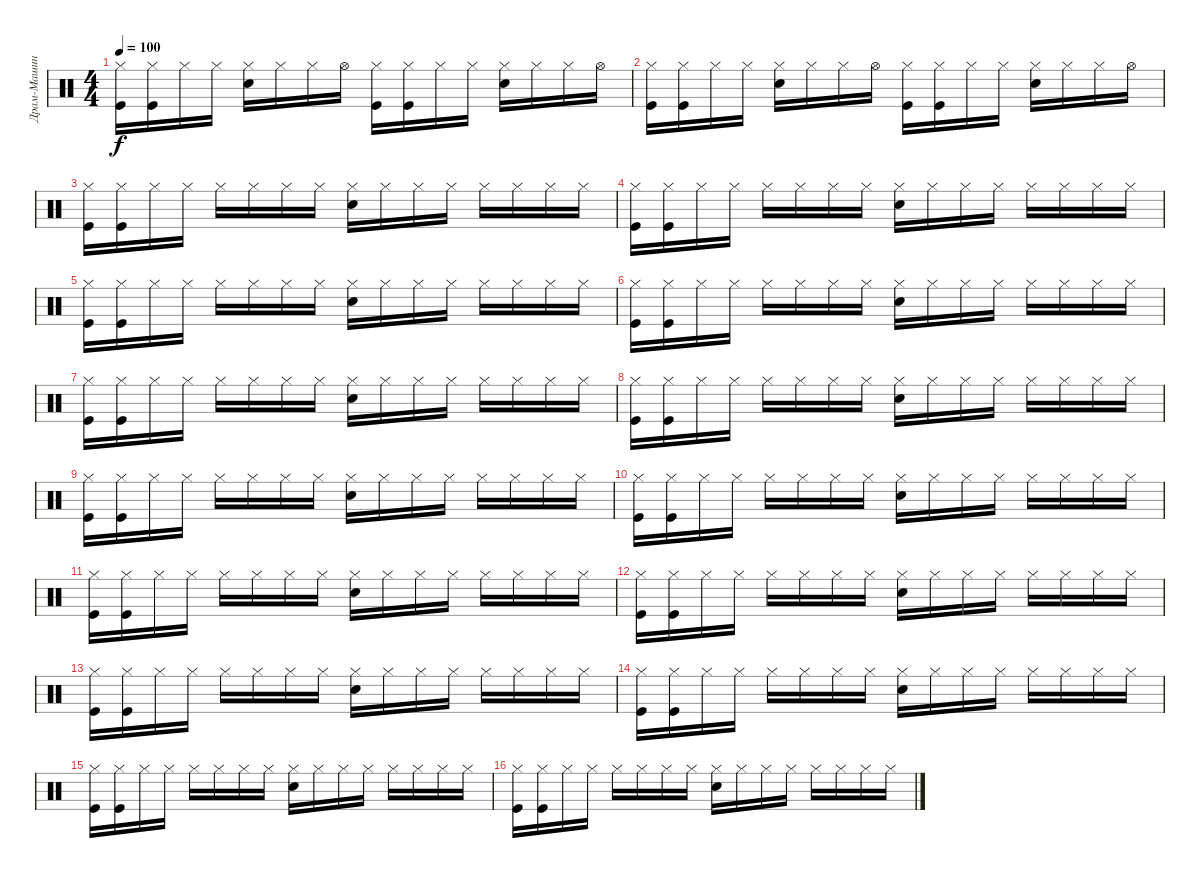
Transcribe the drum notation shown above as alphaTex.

\track ("Драм-Машина" "Драм-Машин") {instrument percussion}
\staff {score}
\articulation defaults
\ts (4 4)
\tempo 100
\clef neutral
\ks c
("Kick (hit)" "Hi-Hat (closed)").16{dy f} ("Kick (hit)" "Hi-Hat (closed)").16 "Hi-Hat (closed)".16 "Hi-Hat (closed)".16 ("Hi-Hat (closed)" "Electric Snare (hit)").16 "Hi-Hat (closed)".16 "Hi-Hat (closed)".16 "Hi-Hat (open)".16 ("Kick (hit)" "Hi-Hat (closed)").16 ("Kick (hit)" "Hi-Hat (closed)").16 "Hi-Hat (closed)".16 "Hi-Hat (closed)".16 ("Hi-Hat (closed)" "Electric Snare (hit)").16 "Hi-Hat (closed)".16 "Hi-Hat (closed)".16 "Hi-Hat (open)".16 |
("Kick (hit)" "Hi-Hat (closed)").16 ("Kick (hit)" "Hi-Hat (closed)").16 "Hi-Hat (closed)".16 "Hi-Hat (closed)".16 ("Hi-Hat (closed)" "Electric Snare (hit)").16 "Hi-Hat (closed)".16 "Hi-Hat (closed)".16 "Hi-Hat (open)".16 ("Kick (hit)" "Hi-Hat (closed)").16 ("Kick (hit)" "Hi-Hat (closed)").16 "Hi-Hat (closed)".16 "Hi-Hat (closed)".16 ("Hi-Hat (closed)" "Electric Snare (hit)").16 "Hi-Hat (closed)".16 "Hi-Hat (closed)".16 "Hi-Hat (open)".16 |
("Kick (hit)" "Hi-Hat (closed)").16 ("Kick (hit)" "Hi-Hat (closed)").16 "Hi-Hat (closed)".16 "Hi-Hat (closed)".16 "Hi-Hat (closed)".16 "Hi-Hat (closed)".16 "Hi-Hat (closed)".16 "Hi-Hat (closed)".16 ("Electric Snare (hit)" "Hi-Hat (closed)").16 "Hi-Hat (closed)".16 "Hi-Hat (closed)".16 "Hi-Hat (closed)".16 "Hi-Hat (closed)".16 "Hi-Hat (closed)".16 "Hi-Hat (closed)".16 "Hi-Hat (closed)".16 |
("Kick (hit)" "Hi-Hat (closed)").16 ("Kick (hit)" "Hi-Hat (closed)").16 "Hi-Hat (closed)".16 "Hi-Hat (closed)".16 "Hi-Hat (closed)".16 "Hi-Hat (closed)".16 "Hi-Hat (closed)".16 "Hi-Hat (closed)".16 ("Electric Snare (hit)" "Hi-Hat (closed)").16 "Hi-Hat (closed)".16 "Hi-Hat (closed)".16 "Hi-Hat (closed)".16 "Hi-Hat (closed)".16 "Hi-Hat (closed)".16 "Hi-Hat (closed)".16 "Hi-Hat (closed)".16 |
("Kick (hit)" "Hi-Hat (closed)").16 ("Kick (hit)" "Hi-Hat (closed)").16 "Hi-Hat (closed)".16 "Hi-Hat (closed)".16 "Hi-Hat (closed)".16 "Hi-Hat (closed)".16 "Hi-Hat (closed)".16 "Hi-Hat (closed)".16 ("Electric Snare (hit)" "Hi-Hat (closed)").16 "Hi-Hat (closed)".16 "Hi-Hat (closed)".16 "Hi-Hat (closed)".16 "Hi-Hat (closed)".16 "Hi-Hat (closed)".16 "Hi-Hat (closed)".16 "Hi-Hat (closed)".16 |
("Kick (hit)" "Hi-Hat (closed)").16 ("Kick (hit)" "Hi-Hat (closed)").16 "Hi-Hat (closed)".16 "Hi-Hat (closed)".16 "Hi-Hat (closed)".16 "Hi-Hat (closed)".16 "Hi-Hat (closed)".16 "Hi-Hat (closed)".16 ("Electric Snare (hit)" "Hi-Hat (closed)").16 "Hi-Hat (closed)".16 "Hi-Hat (closed)".16 "Hi-Hat (closed)".16 "Hi-Hat (closed)".16 "Hi-Hat (closed)".16 "Hi-Hat (closed)".16 "Hi-Hat (closed)".16 |
("Kick (hit)" "Hi-Hat (closed)").16 ("Kick (hit)" "Hi-Hat (closed)").16 "Hi-Hat (closed)".16 "Hi-Hat (closed)".16 "Hi-Hat (closed)".16 "Hi-Hat (closed)".16 "Hi-Hat (closed)".16 "Hi-Hat (closed)".16 ("Electric Snare (hit)" "Hi-Hat (closed)").16 "Hi-Hat (closed)".16 "Hi-Hat (closed)".16 "Hi-Hat (closed)".16 "Hi-Hat (closed)".16 "Hi-Hat (closed)".16 "Hi-Hat (closed)".16 "Hi-Hat (closed)".16 |
("Kick (hit)" "Hi-Hat (closed)").16 ("Kick (hit)" "Hi-Hat (closed)").16 "Hi-Hat (closed)".16 "Hi-Hat (closed)".16 "Hi-Hat (closed)".16 "Hi-Hat (closed)".16 "Hi-Hat (closed)".16 "Hi-Hat (closed)".16 ("Electric Snare (hit)" "Hi-Hat (closed)").16 "Hi-Hat (closed)".16 "Hi-Hat (closed)".16 "Hi-Hat (closed)".16 "Hi-Hat (closed)".16 "Hi-Hat (closed)".16 "Hi-Hat (closed)".16 "Hi-Hat (closed)".16 |
("Kick (hit)" "Hi-Hat (closed)").16 ("Kick (hit)" "Hi-Hat (closed)").16 "Hi-Hat (closed)".16 "Hi-Hat (closed)".16 "Hi-Hat (closed)".16 "Hi-Hat (closed)".16 "Hi-Hat (closed)".16 "Hi-Hat (closed)".16 ("Electric Snare (hit)" "Hi-Hat (closed)").16 "Hi-Hat (closed)".16 "Hi-Hat (closed)".16 "Hi-Hat (closed)".16 "Hi-Hat (closed)".16 "Hi-Hat (closed)".16 "Hi-Hat (closed)".16 "Hi-Hat (closed)".16 |
("Kick (hit)" "Hi-Hat (closed)").16 ("Kick (hit)" "Hi-Hat (closed)").16 "Hi-Hat (closed)".16 "Hi-Hat (closed)".16 "Hi-Hat (closed)".16 "Hi-Hat (closed)".16 "Hi-Hat (closed)".16 "Hi-Hat (closed)".16 ("Electric Snare (hit)" "Hi-Hat (closed)").16 "Hi-Hat (closed)".16 "Hi-Hat (closed)".16 "Hi-Hat (closed)".16 "Hi-Hat (closed)".16 "Hi-Hat (closed)".16 "Hi-Hat (closed)".16 "Hi-Hat (closed)".16 |
("Kick (hit)" "Hi-Hat (closed)").16 ("Kick (hit)" "Hi-Hat (closed)").16 "Hi-Hat (closed)".16 "Hi-Hat (closed)".16 "Hi-Hat (closed)".16 "Hi-Hat (closed)".16 "Hi-Hat (closed)".16 "Hi-Hat (closed)".16 ("Electric Snare (hit)" "Hi-Hat (closed)").16 "Hi-Hat (closed)".16 "Hi-Hat (closed)".16 "Hi-Hat (closed)".16 "Hi-Hat (closed)".16 "Hi-Hat (closed)".16 "Hi-Hat (closed)".16 "Hi-Hat (closed)".16 |
("Kick (hit)" "Hi-Hat (closed)").16 ("Kick (hit)" "Hi-Hat (closed)").16 "Hi-Hat (closed)".16 "Hi-Hat (closed)".16 "Hi-Hat (closed)".16 "Hi-Hat (closed)".16 "Hi-Hat (closed)".16 "Hi-Hat (closed)".16 ("Electric Snare (hit)" "Hi-Hat (closed)").16 "Hi-Hat (closed)".16 "Hi-Hat (closed)".16 "Hi-Hat (closed)".16 "Hi-Hat (closed)".16 "Hi-Hat (closed)".16 "Hi-Hat (closed)".16 "Hi-Hat (closed)".16 |
("Kick (hit)" "Hi-Hat (closed)").16 ("Kick (hit)" "Hi-Hat (closed)").16 "Hi-Hat (closed)".16 "Hi-Hat (closed)".16 "Hi-Hat (closed)".16 "Hi-Hat (closed)".16 "Hi-Hat (closed)".16 "Hi-Hat (closed)".16 ("Electric Snare (hit)" "Hi-Hat (closed)").16 "Hi-Hat (closed)".16 "Hi-Hat (closed)".16 "Hi-Hat (closed)".16 "Hi-Hat (closed)".16 "Hi-Hat (closed)".16 "Hi-Hat (closed)".16 "Hi-Hat (closed)".16 |
("Kick (hit)" "Hi-Hat (closed)").16 ("Kick (hit)" "Hi-Hat (closed)").16 "Hi-Hat (closed)".16 "Hi-Hat (closed)".16 "Hi-Hat (closed)".16 "Hi-Hat (closed)".16 "Hi-Hat (closed)".16 "Hi-Hat (closed)".16 ("Electric Snare (hit)" "Hi-Hat (closed)").16 "Hi-Hat (closed)".16 "Hi-Hat (closed)".16 "Hi-Hat (closed)".16 "Hi-Hat (closed)".16 "Hi-Hat (closed)".16 "Hi-Hat (closed)".16 "Hi-Hat (closed)".16 |
("Kick (hit)" "Hi-Hat (closed)").16 ("Kick (hit)" "Hi-Hat (closed)").16 "Hi-Hat (closed)".16 "Hi-Hat (closed)".16 "Hi-Hat (closed)".16 "Hi-Hat (closed)".16 "Hi-Hat (closed)".16 "Hi-Hat (closed)".16 ("Electric Snare (hit)" "Hi-Hat (closed)").16 "Hi-Hat (closed)".16 "Hi-Hat (closed)".16 "Hi-Hat (closed)".16 "Hi-Hat (closed)".16 "Hi-Hat (closed)".16 "Hi-Hat (closed)".16 "Hi-Hat (closed)".16 |
("Kick (hit)" "Hi-Hat (closed)").16 ("Kick (hit)" "Hi-Hat (closed)").16 "Hi-Hat (closed)".16 "Hi-Hat (closed)".16 "Hi-Hat (closed)".16 "Hi-Hat (closed)".16 "Hi-Hat (closed)".16 "Hi-Hat (closed)".16 ("Electric Snare (hit)" "Hi-Hat (closed)").16 "Hi-Hat (closed)".16 "Hi-Hat (closed)".16 "Hi-Hat (closed)".16 "Hi-Hat (closed)".16 "Hi-Hat (closed)".16 "Hi-Hat (closed)".16 "Hi-Hat (closed)".16
